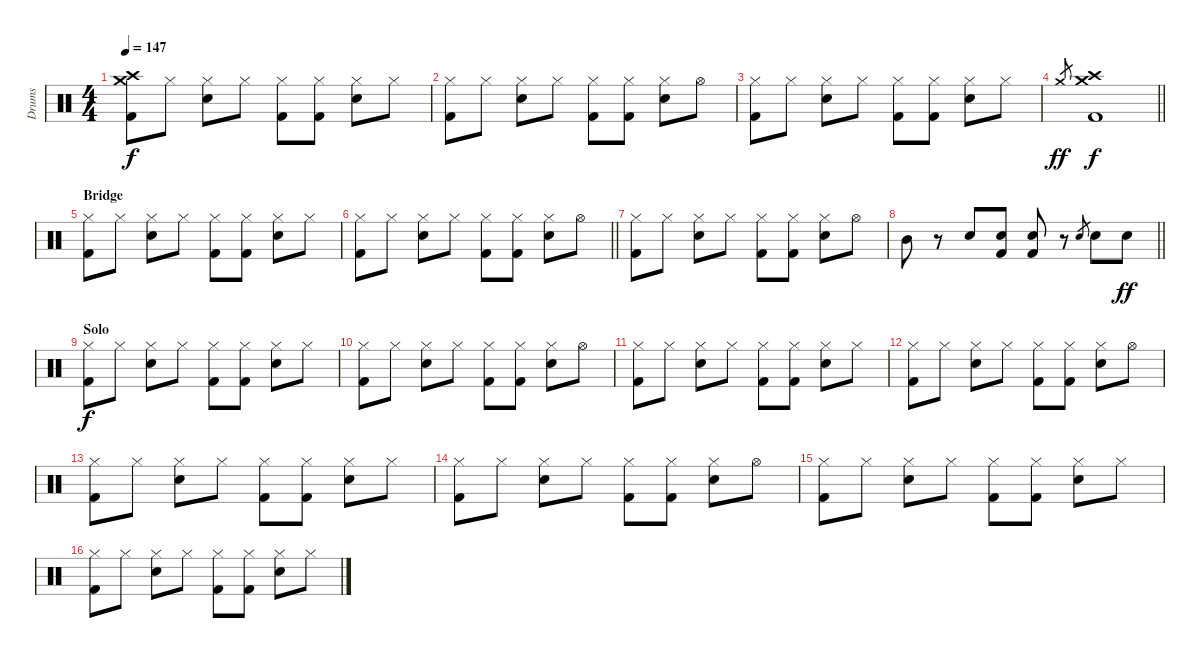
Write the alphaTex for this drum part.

\track ("Drums" "Drums") {instrument percussion}
\staff {score}
\articulation defaults
\ts (4 4)
\tempo 147
\clef neutral
\ks c
("Crash medium (hit)" "Crash high (hit)" "Kick (hit) 2").8{dy f} "Hi-Hat (closed)".8 ("Hi-Hat (closed)" "Electric Snare (hit)").8 "Hi-Hat (closed)".8 ("Hi-Hat (closed)" "Kick (hit) 2").8 ("Hi-Hat (closed)" "Kick (hit) 2").8 ("Hi-Hat (closed)" "Electric Snare (hit)").8 "Hi-Hat (closed)".8 |
("Hi-Hat (closed)" "Kick (hit) 2").8 "Hi-Hat (closed)".8 ("Hi-Hat (closed)" "Electric Snare (hit)").8 "Hi-Hat (closed)".8 ("Hi-Hat (closed)" "Kick (hit) 2").8 ("Hi-Hat (closed)" "Kick (hit) 2").8 ("Hi-Hat (closed)" "Electric Snare (hit)").8 "Hi-Hat (open)".8 |
("Hi-Hat (closed)" "Kick (hit) 2").8 "Hi-Hat (closed)".8 ("Hi-Hat (closed)" "Electric Snare (hit)").8 "Hi-Hat (closed)".8 ("Hi-Hat (closed)" "Kick (hit) 2").8 ("Hi-Hat (closed)" "Kick (hit) 2").8 ("Hi-Hat (closed)" "Electric Snare (hit)").8 "Hi-Hat (closed)".8 |
\barLineRight lightlight "Crash medium (hit)"{h}.8{gr dy ff}
("Crash high (hit)" "Crash medium (hit)" "Kick (hit) 2").1{dy f} |
\section ("" "Bridge")
("Hi-Hat (closed)" "Kick (hit) 2").8 "Hi-Hat (closed)".8 ("Hi-Hat (closed)" "Electric Snare (hit)").8 "Hi-Hat (closed)".8 ("Hi-Hat (closed)" "Kick (hit) 2").8 ("Hi-Hat (closed)" "Kick (hit) 2").8 ("Hi-Hat (closed)" "Electric Snare (hit)").8 "Hi-Hat (closed)".8 |
\barLineRight lightlight
("Hi-Hat (closed)" "Kick (hit) 2").8 "Hi-Hat (closed)".8 ("Hi-Hat (closed)" "Electric Snare (hit)").8 "Hi-Hat (closed)".8 ("Hi-Hat (closed)" "Kick (hit) 2").8 ("Hi-Hat (closed)" "Kick (hit) 2").8 ("Hi-Hat (closed)" "Electric Snare (hit)").8 "Hi-Hat (open)".8 |
("Hi-Hat (closed)" "Kick (hit) 2").8 "Hi-Hat (closed)".8 ("Hi-Hat (closed)" "Electric Snare (hit)").8 "Hi-Hat (closed)".8 ("Hi-Hat (closed)" "Kick (hit) 2").8 ("Hi-Hat (closed)" "Kick (hit) 2").8 ("Hi-Hat (closed)" "Electric Snare (hit)").8 "Hi-Hat (open)".8 |
\barLineRight lightlight "Mid Tom (hit)".8
r.8 "Electric Snare (hit)".8 ("Electric Snare (hit)" "Kick (hit) 2").8 ("Electric Snare (hit)" "Kick (hit) 2").8 r.8 "Electric Snare (hit)".8{gr} "Electric Snare (hit)".8 "Electric Snare (hit)".8{dy ff} |
\section ("" "Solo")
("Hi-Hat (closed)" "Kick (hit) 2").8{dy f} "Hi-Hat (closed)".8 ("Hi-Hat (closed)" "Electric Snare (hit)").8 "Hi-Hat (closed)".8 ("Hi-Hat (closed)" "Kick (hit) 2").8 ("Hi-Hat (closed)" "Kick (hit) 2").8 ("Hi-Hat (closed)" "Electric Snare (hit)").8 "Hi-Hat (closed)".8 |
("Hi-Hat (closed)" "Kick (hit) 2").8 "Hi-Hat (closed)".8 ("Hi-Hat (closed)" "Electric Snare (hit)").8 "Hi-Hat (closed)".8 ("Hi-Hat (closed)" "Kick (hit) 2").8 ("Hi-Hat (closed)" "Kick (hit) 2").8 ("Hi-Hat (closed)" "Electric Snare (hit)").8 "Hi-Hat (open)".8 |
("Hi-Hat (closed)" "Kick (hit) 2").8 "Hi-Hat (closed)".8 ("Hi-Hat (closed)" "Electric Snare (hit)").8 "Hi-Hat (closed)".8 ("Hi-Hat (closed)" "Kick (hit) 2").8 ("Hi-Hat (closed)" "Kick (hit) 2").8 ("Hi-Hat (closed)" "Electric Snare (hit)").8 "Hi-Hat (closed)".8 |
("Hi-Hat (closed)" "Kick (hit) 2").8 "Hi-Hat (closed)".8 ("Hi-Hat (closed)" "Electric Snare (hit)").8 "Hi-Hat (closed)".8 ("Hi-Hat (closed)" "Kick (hit) 2").8 ("Hi-Hat (closed)" "Kick (hit) 2").8 ("Hi-Hat (closed)" "Electric Snare (hit)").8 "Hi-Hat (open)".8 |
("Hi-Hat (closed)" "Kick (hit) 2").8 "Hi-Hat (closed)".8 ("Hi-Hat (closed)" "Electric Snare (hit)").8 "Hi-Hat (closed)".8 ("Hi-Hat (closed)" "Kick (hit) 2").8 ("Hi-Hat (closed)" "Kick (hit) 2").8 ("Hi-Hat (closed)" "Electric Snare (hit)").8 "Hi-Hat (closed)".8 |
("Hi-Hat (closed)" "Kick (hit) 2").8 "Hi-Hat (closed)".8 ("Hi-Hat (closed)" "Electric Snare (hit)").8 "Hi-Hat (closed)".8 ("Hi-Hat (closed)" "Kick (hit) 2").8 ("Hi-Hat (closed)" "Kick (hit) 2").8 ("Hi-Hat (closed)" "Electric Snare (hit)").8 "Hi-Hat (open)".8 |
("Hi-Hat (closed)" "Kick (hit) 2").8 "Hi-Hat (closed)".8 ("Hi-Hat (closed)" "Electric Snare (hit)").8 "Hi-Hat (closed)".8 ("Hi-Hat (closed)" "Kick (hit) 2").8 ("Hi-Hat (closed)" "Kick (hit) 2").8 ("Hi-Hat (closed)" "Electric Snare (hit)").8 "Hi-Hat (closed)".8 |
("Hi-Hat (closed)" "Kick (hit) 2").8 "Hi-Hat (closed)".8 ("Hi-Hat (closed)" "Electric Snare (hit)").8 "Hi-Hat (closed)".8 ("Hi-Hat (closed)" "Kick (hit) 2").8 ("Hi-Hat (closed)" "Kick (hit) 2").8 ("Hi-Hat (closed)" "Electric Snare (hit)").8 "Hi-Hat (closed)".8
